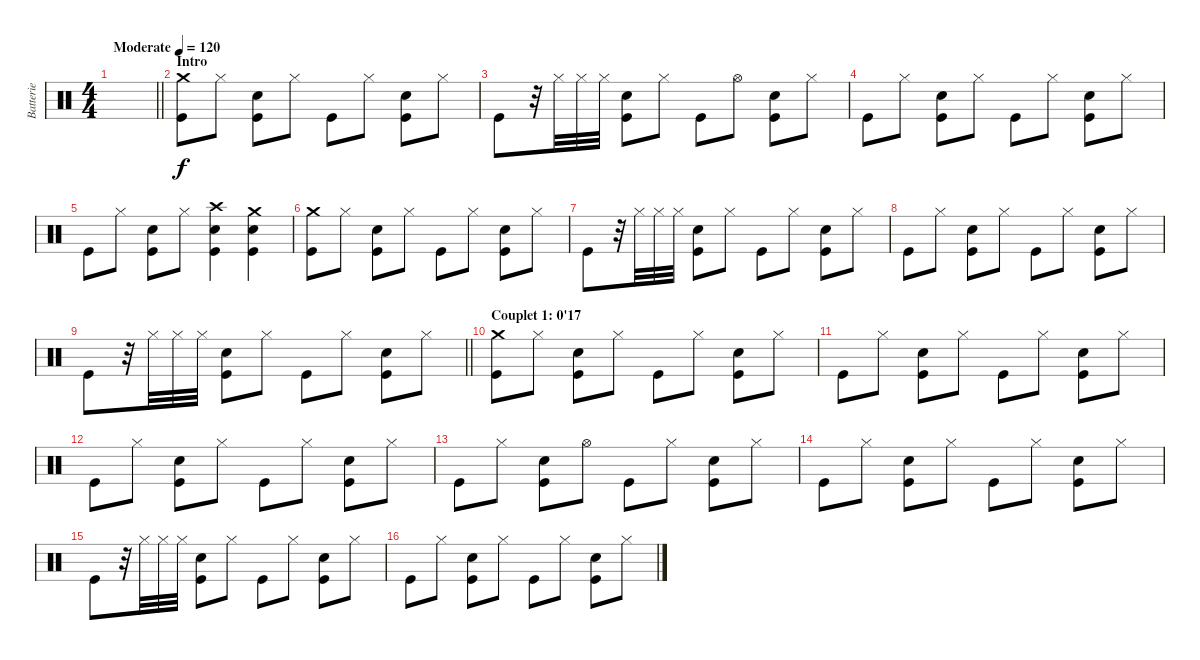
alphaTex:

\track ("Batterie" "Batterie") {instrument percussion}
\staff {score}
\articulation defaults
\ts (4 4)
\tempo (120 "Moderate")
\clef neutral
\barLineRight lightlight
\ks c
|
\section ("" "Intro")
("Crash medium (hit)" "Kick (hit)").8 "Hi-Hat (closed)".8 ("Snare (hit) 2" "Kick (hit)").8 "Hi-Hat (closed)".8 "Kick (hit)".8 "Hi-Hat (closed)".8 ("Snare (hit) 2" "Kick (hit)").8 "Hi-Hat (closed)".8 |
"Kick (hit)".8 r.32 "Hi-Hat (closed)".32 "Hi-Hat (closed)".32 "Hi-Hat (closed)".32 ("Snare (hit) 2" "Kick (hit)").8 "Hi-Hat (closed)".8 "Kick (hit)".8 "Hi-Hat (open)".8 ("Snare (hit) 2" "Kick (hit)").8 "Hi-Hat (closed)".8 |
"Kick (hit)".8 "Hi-Hat (closed)".8 ("Snare (hit) 2" "Kick (hit)").8 "Hi-Hat (closed)".8 "Kick (hit)".8 "Hi-Hat (closed)".8 ("Snare (hit) 2" "Kick (hit)").8 "Hi-Hat (closed)".8 |
"Kick (hit)".8 "Hi-Hat (closed)".8 ("Snare (hit) 2" "Kick (hit)").8 "Hi-Hat (closed)".8 ("Crash high (hit)" "Snare (hit) 2" "Kick (hit)").4 ("Crash medium (hit)" "Snare (hit) 2" "Kick (hit)").4 |
("Crash medium (hit)" "Kick (hit)").8 "Hi-Hat (closed)".8 ("Snare (hit) 2" "Kick (hit)").8 "Hi-Hat (closed)".8 "Kick (hit)".8 "Hi-Hat (closed)".8 ("Snare (hit) 2" "Kick (hit)").8 "Hi-Hat (closed)".8 |
"Kick (hit)".8 r.32 "Hi-Hat (closed)".32 "Hi-Hat (closed)".32 "Hi-Hat (closed)".32 ("Snare (hit) 2" "Kick (hit)").8 "Hi-Hat (closed)".8 "Kick (hit)".8 "Hi-Hat (closed)".8 ("Snare (hit) 2" "Kick (hit)").8 "Hi-Hat (closed)".8 |
"Kick (hit)".8 "Hi-Hat (closed)".8 ("Snare (hit) 2" "Kick (hit)").8 "Hi-Hat (closed)".8 "Kick (hit)".8 "Hi-Hat (closed)".8 ("Snare (hit) 2" "Kick (hit)").8 "Hi-Hat (closed)".8 |
\barLineRight lightlight "Kick (hit)".8
r.32 "Hi-Hat (closed)".32 "Hi-Hat (closed)".32 "Hi-Hat (closed)".32 ("Snare (hit) 2" "Kick (hit)").8 "Hi-Hat (closed)".8 "Kick (hit)".8 "Hi-Hat (closed)".8 ("Snare (hit) 2" "Kick (hit)").8 "Hi-Hat (closed)".8 |
\section ("" "Couplet 1: 0'17")
("Crash medium (hit)" "Kick (hit)").8 "Hi-Hat (closed)".8 ("Snare (hit) 2" "Kick (hit)").8 "Hi-Hat (closed)".8 "Kick (hit)".8 "Hi-Hat (closed)".8 ("Snare (hit) 2" "Kick (hit)").8 "Hi-Hat (closed)".8 |
"Kick (hit)".8 "Hi-Hat (closed)".8 ("Snare (hit) 2" "Kick (hit)").8 "Hi-Hat (closed)".8 "Kick (hit)".8 "Hi-Hat (closed)".8 ("Snare (hit) 2" "Kick (hit)").8 "Hi-Hat (closed)".8 |
"Kick (hit)".8 "Hi-Hat (closed)".8 ("Snare (hit) 2" "Kick (hit)").8 "Hi-Hat (closed)".8 "Kick (hit)".8 "Hi-Hat (closed)".8 ("Snare (hit) 2" "Kick (hit)").8 "Hi-Hat (closed)".8 |
"Kick (hit)".8 "Hi-Hat (closed)".8 ("Snare (hit) 2" "Kick (hit)").8 "Hi-Hat (open)".8 "Kick (hit)".8 "Hi-Hat (closed)".8 ("Snare (hit) 2" "Kick (hit)").8 "Hi-Hat (closed)".8 |
"Kick (hit)".8 "Hi-Hat (closed)".8 ("Snare (hit) 2" "Kick (hit)").8 "Hi-Hat (closed)".8 "Kick (hit)".8 "Hi-Hat (closed)".8 ("Snare (hit) 2" "Kick (hit)").8 "Hi-Hat (closed)".8 |
"Kick (hit)".8 r.32 "Hi-Hat (closed)".32 "Hi-Hat (closed)".32 "Hi-Hat (closed)".32 ("Snare (hit) 2" "Kick (hit)").8 "Hi-Hat (closed)".8 "Kick (hit)".8 "Hi-Hat (closed)".8 ("Snare (hit) 2" "Kick (hit)").8 "Hi-Hat (closed)".8 |
"Kick (hit)".8 "Hi-Hat (closed)".8 ("Snare (hit) 2" "Kick (hit)").8 "Hi-Hat (closed)".8 "Kick (hit)".8 "Hi-Hat (closed)".8 ("Snare (hit) 2" "Kick (hit)").8 "Hi-Hat (closed)".8
